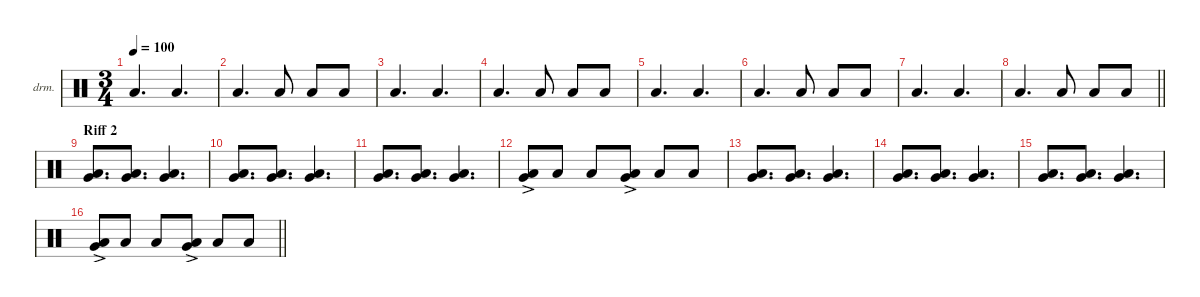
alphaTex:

\defaultSystemsLayout 4
\hideDynamics
\bracketExtendMode nobrackets
\firstSystemTrackNameOrientation horizontal
\otherSystemsTrackNameOrientation horizontal
\track ("Dondervuyscht" "drm.") {instrument percussion}
\staff {score}
\articulation defaults
\ts (3 4)
\tempo 100
\clef neutral
\ks c "Low Floor Tom (hit)".4{d dy f} "Low Floor Tom (hit)".4{d}
|
"Low Floor Tom (hit)".4{d} "Low Floor Tom (hit)".8 "Low Floor Tom (hit)".8 "Low Floor Tom (hit)".8 |
"Low Floor Tom (hit)".4{d} "Low Floor Tom (hit)".4{d} |
"Low Floor Tom (hit)".4{d} "Low Floor Tom (hit)".8 "Low Floor Tom (hit)".8 "Low Floor Tom (hit)".8 |
"Low Floor Tom (hit)".4{d} "Low Floor Tom (hit)".4{d} |
"Low Floor Tom (hit)".4{d} "Low Floor Tom (hit)".8 "Low Floor Tom (hit)".8 "Low Floor Tom (hit)".8 |
"Low Floor Tom (hit)".4{d} "Low Floor Tom (hit)".4{d} |
\barLineRight lightlight "Low Floor Tom (hit)".4{d} "Low Floor Tom (hit)".8 "Low Floor Tom (hit)".8 "Low Floor Tom (hit)".8
|
\section ("" "Riff 2")
("Very Low Tom (hit)" "Low Floor Tom (hit)").8{d} ("Very Low Tom (hit)" "Low Floor Tom (hit)").8{d} ("Very Low Tom (hit)" "Low Floor Tom (hit)").4{d} |
("Very Low Tom (hit)" "Low Floor Tom (hit)").8{d} ("Very Low Tom (hit)" "Low Floor Tom (hit)").8{d} ("Very Low Tom (hit)" "Low Floor Tom (hit)").4{d} |
("Very Low Tom (hit)" "Low Floor Tom (hit)").8{d} ("Very Low Tom (hit)" "Low Floor Tom (hit)").8{d} ("Very Low Tom (hit)" "Low Floor Tom (hit)").4{d} |
("Very Low Tom (hit)"{ac} "Low Floor Tom (hit)"{ac}).8 "Low Floor Tom (hit)".8 "Low Floor Tom (hit)".8 ("Very Low Tom (hit)"{ac} "Low Floor Tom (hit)"{ac}).8 "Low Floor Tom (hit)".8 "Low Floor Tom (hit)".8 |
("Very Low Tom (hit)" "Low Floor Tom (hit)").8{d} ("Very Low Tom (hit)" "Low Floor Tom (hit)").8{d} ("Very Low Tom (hit)" "Low Floor Tom (hit)").4{d} |
("Very Low Tom (hit)" "Low Floor Tom (hit)").8{d} ("Very Low Tom (hit)" "Low Floor Tom (hit)").8{d} ("Very Low Tom (hit)" "Low Floor Tom (hit)").4{d} |
("Very Low Tom (hit)" "Low Floor Tom (hit)").8{d} ("Very Low Tom (hit)" "Low Floor Tom (hit)").8{d} ("Very Low Tom (hit)" "Low Floor Tom (hit)").4{d} |
\barLineRight lightlight
("Very Low Tom (hit)"{ac} "Low Floor Tom (hit)"{ac}).8 "Low Floor Tom (hit)".8 "Low Floor Tom (hit)".8 ("Very Low Tom (hit)"{ac} "Low Floor Tom (hit)"{ac}).8 "Low Floor Tom (hit)".8 "Low Floor Tom (hit)".8
